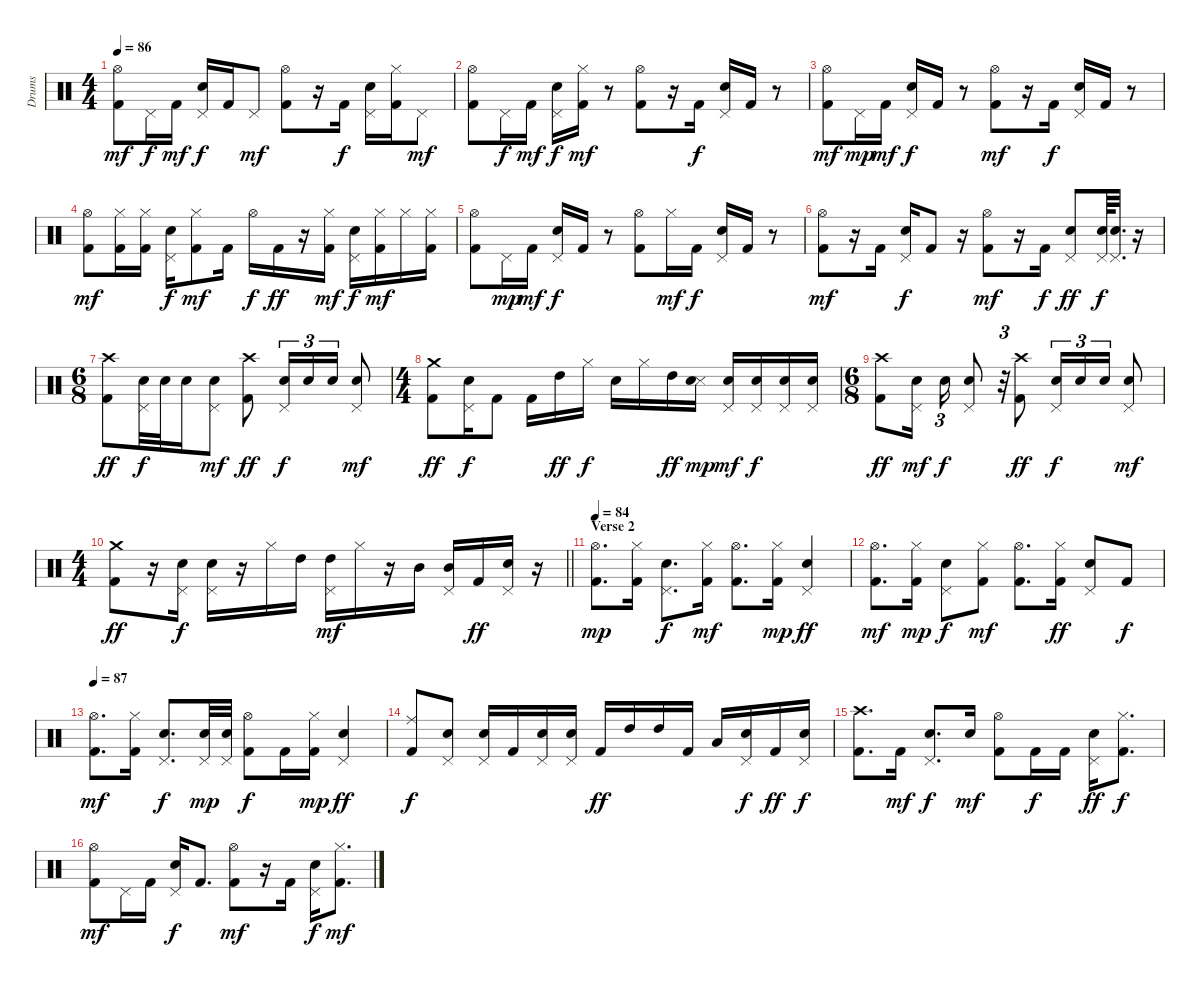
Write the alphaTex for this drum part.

\track ("Drums" "Drums") {instrument percussion}
\staff {score}
\articulation defaults
\ts (4 4)
\tempo 86
\clef neutral
\ks c
("Hi-Hat (open)" "Kick (hit) 2").8{dy mf} "Pedal Hi-Hat (hit)".16{dy f} "Kick (hit) 2".16{dy mf} ("Pedal Hi-Hat (hit)" "Snare (hit) 2").16{dy f} "Kick (hit) 2".16 "Pedal Hi-Hat (hit)".8{dy mf} ("Hi-Hat (open)" "Kick (hit) 2").8 r.16 "Kick (hit) 2".16{dy f} ("Pedal Hi-Hat (hit)" "Snare (hit) 2").16 ("Hi-Hat (closed)" "Kick (hit) 2").16 "Pedal Hi-Hat (hit)".8{dy mf} |
("Hi-Hat (open)" "Kick (hit) 2").8 "Pedal Hi-Hat (hit)".16{dy f} "Kick (hit) 2".16{dy mf} ("Pedal Hi-Hat (hit)" "Snare (hit) 2").16{dy f} ("Hi-Hat (closed)" "Kick (hit) 2").16{dy mf} r.8 ("Hi-Hat (open)" "Kick (hit) 2").8 r.16 "Kick (hit) 2".16{dy f} ("Pedal Hi-Hat (hit)" "Snare (hit) 2").16 "Kick (hit) 2".16 r.8 |
("Hi-Hat (open)" "Kick (hit) 2").8{dy mf} "Pedal Hi-Hat (hit)".16{dy mp} "Kick (hit) 2".16{dy mf} ("Pedal Hi-Hat (hit)" "Snare (hit) 2").16{dy f} "Kick (hit) 2".16 r.8 ("Hi-Hat (open)" "Kick (hit) 2").8{dy mf} r.16 "Kick (hit) 2".16{dy f} ("Pedal Hi-Hat (hit)" "Snare (hit) 2").16 "Kick (hit) 2".16 r.8 |
("Hi-Hat (open)" "Kick (hit) 2").8{dy mf} ("Hi-Hat (closed)" "Kick (hit) 2").16 ("Hi-Hat (closed)" "Kick (hit) 2").16 ("Pedal Hi-Hat (hit)" "Snare (hit) 2").16{dy f} ("Hi-Hat (closed)" "Kick (hit) 2").8{dy mf} "Kick (hit) 2".16 "Hi-Hat (open)".16{dy f} "Kick (hit) 2".16{dy ff} r.16 ("Hi-Hat (closed)" "Kick (hit) 2").16{dy mf} ("Pedal Hi-Hat (hit)" "Snare (hit) 2").16{dy f} ("Hi-Hat (closed)" "Kick (hit) 2").16{dy mf} "Hi-Hat (closed)".16 ("Hi-Hat (closed)" "Kick (hit) 2").16 |
("Hi-Hat (open)" "Kick (hit) 2").8 "Pedal Hi-Hat (hit)".16{dy mp} "Kick (hit) 2".16{dy mf} ("Pedal Hi-Hat (hit)" "Snare (hit) 2").16{dy f} "Kick (hit) 2".16 r.8 ("Hi-Hat (open)" "Kick (hit) 2").8 "Hi-Hat (closed)".16{dy mf} "Kick (hit) 2".16{dy f} ("Pedal Hi-Hat (hit)" "Snare (hit) 2").16 "Kick (hit) 2".16 r.8 |
("Hi-Hat (open)" "Kick (hit) 2").8{dy mf} r.16 "Kick (hit) 2".16 ("Pedal Hi-Hat (hit)" "Snare (hit) 2").16{dy f} "Kick (hit) 2".8 r.16 ("Hi-Hat (open)" "Kick (hit) 2").8{dy mf} r.16 "Kick (hit) 2".16{dy f} ("Pedal Hi-Hat (hit)" "Snare (hit) 2").8{dy ff} ("Pedal Hi-Hat (hit)" "Snare (hit) 2").64{dy f} ("Pedal Hi-Hat (hit)" "Snare (hit) 2").32{d} r.16 |
\ts (6 8)
("Crash high (hit)" "Kick (hit) 2").8{dy ff} ("Pedal Hi-Hat (hit)" "Snare (hit) 2").32{dy f} "Snare (hit) 2".32 "Snare (hit) 2".16 ("Pedal Hi-Hat (hit)" "Snare (hit) 2").8{dy mf} ("Crash high (hit)" "Kick (hit) 2").8{dy ff} ("Pedal Hi-Hat (hit)" "Snare (hit) 2").16{tu (3 2) dy f} "Snare (hit) 2".16{tu (3 2)} "Snare (hit) 2".16{tu (3 2)} ("Pedal Hi-Hat (hit)" "Snare (hit) 2").8{dy mf} |
\ts (4 4)
("Crash medium (hit)" "Kick (hit) 2").8{dy ff} ("Pedal Hi-Hat (hit)" "Snare (hit) 2").16{dy f} "Kick (hit) 2".8 "Kick (hit) 2".16 "High Tom (hit)".16{dy ff} "Hi-Hat (closed)".16{dy f} "Snare (hit) 2".16 "Hi-Hat (closed)".16 "High Tom (hit)".16{dy ff} ("Snare (side stick) 3" "Snare (hit) 2").16{dy mp} ("Pedal Hi-Hat (hit)" "Snare (hit) 2").16{dy mf} ("Pedal Hi-Hat (hit)" "Snare (hit) 2").16{dy f} ("Pedal Hi-Hat (hit)" "Snare (hit) 2").16 ("Pedal Hi-Hat (hit)" "Snare (hit) 2").16 |
\ts (6 8)
("Crash high (hit)" "Kick (hit) 2").8{dy ff} ("Pedal Hi-Hat (hit)" "Snare (hit) 2").16{dy mf beam splitsecondary} "Snare (hit) 2".16{tu (3 2) dy f} ("Pedal Hi-Hat (hit)" "Snare (hit) 2").8 r.32{tu (3 2)} ("Crash high (hit)" "Kick (hit) 2").8{dy ff} ("Pedal Hi-Hat (hit)" "Snare (hit) 2").16{tu (3 2) dy f} "Snare (hit) 2".16{tu (3 2)} "Snare (hit) 2".16{tu (3 2)} ("Pedal Hi-Hat (hit)" "Snare (hit) 2").8{dy mf} |
\ts (4 4)
\barLineRight lightlight
("Crash medium (hit)" "Kick (hit) 2").8{dy ff} r.16 ("Pedal Hi-Hat (hit)" "Snare (hit) 2").16{dy f} ("Pedal Hi-Hat (hit)" "Snare (hit) 2").16 r.16 "Hi-Hat (closed)".16 "High Tom (hit)".16 ("Pedal Hi-Hat (hit)" "High Tom (hit)").16{dy mf} "Hi-Hat (closed)".16 r.16 "Mid Tom (hit)".16 ("Pedal Hi-Hat (hit)" "Mid Tom (hit)").16 "Kick (hit) 2".16{dy ff} ("Pedal Hi-Hat (hit)" "Snare (hit) 2").16 r.16 |
\section ("" "Verse 2")
\tempo 84
("Hi-Hat (open)" "Kick (hit) 2").8{d dy mp} ("Hi-Hat (closed)" "Kick (hit) 2").16 ("Pedal Hi-Hat (hit)" "Snare (hit) 2").8{d dy f} ("Hi-Hat (closed)" "Kick (hit) 2").16{dy mf} ("Hi-Hat (open)" "Kick (hit) 2").8{d} ("Hi-Hat (closed)" "Kick (hit) 2").16{dy mp} ("Pedal Hi-Hat (hit)" "Snare (hit) 2").4{dy ff} |
("Hi-Hat (open)" "Kick (hit) 2").8{d dy mf} ("Hi-Hat (closed)" "Kick (hit) 2").16{dy mp} ("Pedal Hi-Hat (hit)" "Snare (hit) 2").8{dy f} ("Hi-Hat (closed)" "Kick (hit) 2").8{dy mf} ("Hi-Hat (open)" "Kick (hit) 2").8{d} ("Hi-Hat (closed)" "Kick (hit) 2").16{dy ff} ("Pedal Hi-Hat (hit)" "Snare (hit) 2").8 "Kick (hit) 2".8{dy f} |
\tempo 87
("Hi-Hat (open)" "Kick (hit) 2").8{d dy mf} ("Hi-Hat (closed)" "Kick (hit) 2").16 ("Pedal Hi-Hat (hit)" "Snare (hit) 2").8{d dy f} ("Pedal Hi-Hat (hit)" "Snare (hit) 2").32{dy mp} ("Pedal Hi-Hat (hit)" "Snare (hit) 2").32 ("Hi-Hat (open)" "Kick (hit) 2").8{dy f} "Kick (hit) 2".16 ("Hi-Hat (closed)" "Kick (hit) 2").16{dy mp} ("Pedal Hi-Hat (hit)" "Snare (hit) 2").4{dy ff} |
("Ride (middle)" "Kick (hit) 2").8{dy f} ("Pedal Hi-Hat (hit)" "Snare (hit) 2").8 ("Pedal Hi-Hat (hit)" "Snare (hit) 2").16 "Kick (hit) 2".16 ("Pedal Hi-Hat (hit)" "Snare (hit) 2").16 ("Pedal Hi-Hat (hit)" "Snare (hit) 2").16 "Kick (hit) 2".16{dy ff} "High Tom (hit)".16 "High Tom (hit)".16 "Kick (hit) 2".16 "Low Tom (hit)".16 ("Pedal Hi-Hat (hit)" "Snare (hit) 2").16{dy f} "Kick (hit) 2".16{dy ff} ("Pedal Hi-Hat (hit)" "Snare (hit) 2").16{dy f} |
("Crash high (hit)" "Kick (hit) 2").8{d} "Kick (hit) 2".16{dy mf} ("Pedal Hi-Hat (hit)" "Snare (hit) 2").8{d dy f} "Snare (hit) 2".16{dy mf} ("Hi-Hat (open)" "Kick (hit) 2").8 "Kick (hit) 2".16{dy f} "Kick (hit) 2".16 ("Pedal Hi-Hat (hit)" "Snare (hit) 2").16{dy ff} ("Hi-Hat (closed)" "Kick (hit) 2").8{d dy f} |
("Hi-Hat (open)" "Kick (hit) 2").8{dy mf} "Pedal Hi-Hat (hit)".16 "Kick (hit) 2".16 ("Pedal Hi-Hat (hit)" "Snare (hit) 2").16{dy f} "Kick (hit) 2".8{d} ("Hi-Hat (open)" "Kick (hit) 2").8{dy mf} r.16 "Kick (hit) 2".16 ("Pedal Hi-Hat (hit)" "Snare (hit) 2").16{dy f} ("Hi-Hat (closed)" "Kick (hit) 2").8{d dy mf}
